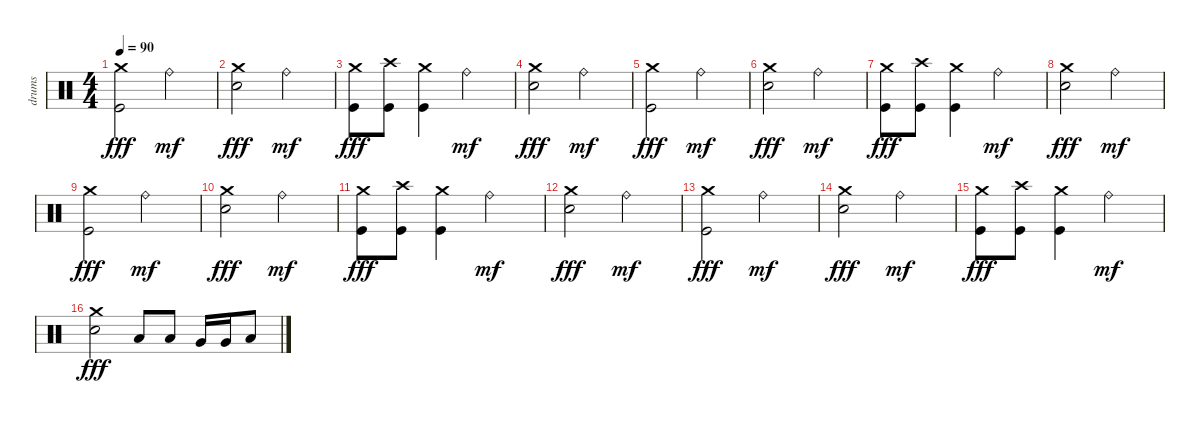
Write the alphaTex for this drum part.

\track ("drums" "drums") {instrument percussion}
\staff {score}
\articulation defaults
\ts (4 4)
\tempo 90
\clef neutral
\ks c
("Crash medium (hit)" "Kick (hit)").2{dy fff} "Ride (bell)".2{dy mf} |
("Crash medium (hit)" "Electric Snare (hit)").2{dy fff} "Ride (bell)".2{dy mf} |
("Crash medium (hit)" "Kick (hit)").8{dy fff} ("Crash high (hit)" "Kick (hit)").8 ("Crash medium (hit)" "Kick (hit)").4 "Ride (bell)".2{dy mf} |
("Crash medium (hit)" "Electric Snare (hit)").2{dy fff} "Ride (bell)".2{dy mf} |
("Crash medium (hit)" "Kick (hit)").2{dy fff} "Ride (bell)".2{dy mf} |
("Crash medium (hit)" "Electric Snare (hit)").2{dy fff} "Ride (bell)".2{dy mf} |
("Crash medium (hit)" "Kick (hit)").8{dy fff} ("Crash high (hit)" "Kick (hit)").8 ("Crash medium (hit)" "Kick (hit)").4 "Ride (bell)".2{dy mf} |
("Crash medium (hit)" "Electric Snare (hit)").2{dy fff} "Ride (bell)".2{dy mf} |
("Crash medium (hit)" "Kick (hit)").2{dy fff} "Ride (bell)".2{dy mf} |
("Crash medium (hit)" "Electric Snare (hit)").2{dy fff} "Ride (bell)".2{dy mf} |
("Crash medium (hit)" "Kick (hit)").8{dy fff} ("Crash high (hit)" "Kick (hit)").8 ("Crash medium (hit)" "Kick (hit)").4 "Ride (bell)".2{dy mf} |
("Crash medium (hit)" "Electric Snare (hit)").2{dy fff} "Ride (bell)".2{dy mf} |
("Crash medium (hit)" "Kick (hit)").2{dy fff} "Ride (bell)".2{dy mf} |
("Crash medium (hit)" "Electric Snare (hit)").2{dy fff} "Ride (bell)".2{dy mf} |
("Crash medium (hit)" "Kick (hit)").8{dy fff} ("Crash high (hit)" "Kick (hit)").8 ("Crash medium (hit)" "Kick (hit)").4 "Ride (bell)".2{dy mf} |
("Crash medium (hit)" "Electric Snare (hit)").2{dy fff} "Low Tom (hit)".8 "Low Tom (hit)".8 "Very Low Tom (hit)".16 "Very Low Tom (hit)".16 "Low Floor Tom (hit)".8
